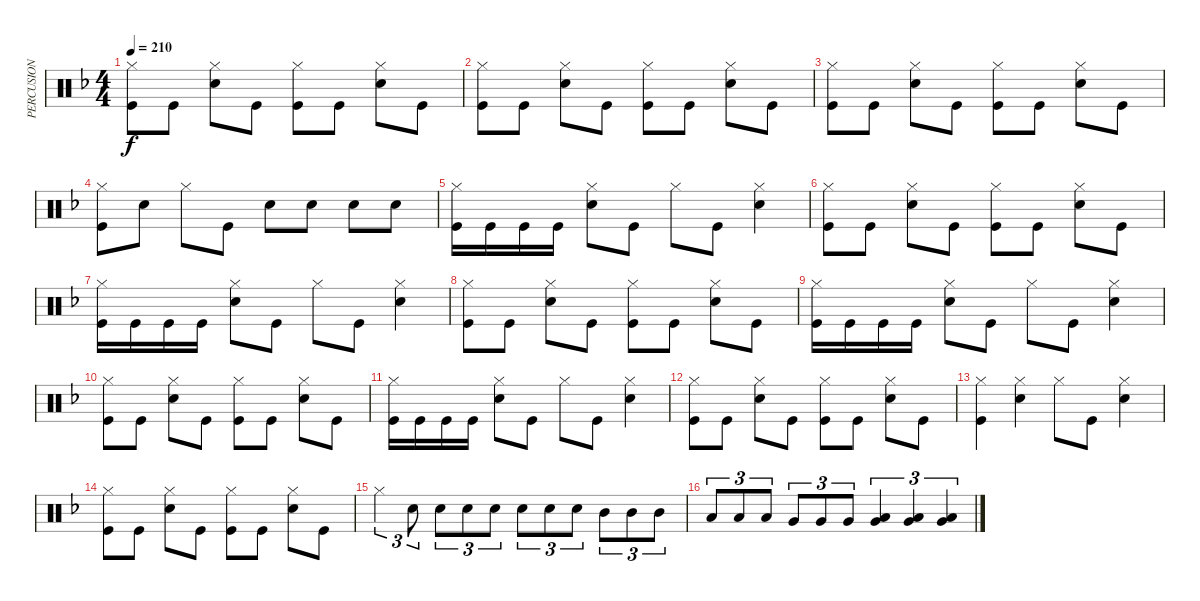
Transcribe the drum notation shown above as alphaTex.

\track ("PERCUSION" "PERCUSION") {instrument percussion}
\staff {score}
\articulation defaults
\ts (4 4)
\tempo 210
\clef neutral
\ks f
("Hi-Hat (closed)" "Kick (hit)").8{dy f} "Kick (hit)".8 ("Hi-Hat (closed)" "Snare (hit) 2").8 "Kick (hit)".8 ("Hi-Hat (closed)" "Kick (hit)").8 "Kick (hit)".8 ("Hi-Hat (closed)" "Snare (hit) 2").8 "Kick (hit)".8 |
("Hi-Hat (closed)" "Kick (hit)").8 "Kick (hit)".8 ("Hi-Hat (closed)" "Snare (hit) 2").8 "Kick (hit)".8 ("Hi-Hat (closed)" "Kick (hit)").8 "Kick (hit)".8 ("Hi-Hat (closed)" "Snare (hit) 2").8 "Kick (hit)".8 |
("Hi-Hat (closed)" "Kick (hit)").8 "Kick (hit)".8 ("Hi-Hat (closed)" "Snare (hit) 2").8 "Kick (hit)".8 ("Hi-Hat (closed)" "Kick (hit)").8 "Kick (hit)".8 ("Hi-Hat (closed)" "Snare (hit) 2").8 "Kick (hit)".8 |
("Hi-Hat (closed)" "Kick (hit)").8 "Snare (hit) 2".8 "Hi-Hat (closed)".8 "Kick (hit)".8 "Snare (hit) 2".8 "Snare (hit) 2".8 "Snare (hit) 2".8 "Snare (hit) 2".8 |
("Hi-Hat (closed)" "Kick (hit)").16 "Kick (hit)".16 "Kick (hit)".16 "Kick (hit)".16 ("Hi-Hat (closed)" "Snare (hit) 2").8 "Kick (hit)".8 "Hi-Hat (closed)".8 "Kick (hit)".8 ("Hi-Hat (closed)" "Snare (hit) 2").4 |
("Hi-Hat (closed)" "Kick (hit)").8 "Kick (hit)".8 ("Hi-Hat (closed)" "Snare (hit) 2").8 "Kick (hit)".8 ("Hi-Hat (closed)" "Kick (hit)").8 "Kick (hit)".8 ("Hi-Hat (closed)" "Snare (hit) 2").8 "Kick (hit)".8 |
("Hi-Hat (closed)" "Kick (hit)").16 "Kick (hit)".16 "Kick (hit)".16 "Kick (hit)".16 ("Hi-Hat (closed)" "Snare (hit) 2").8 "Kick (hit)".8 "Hi-Hat (closed)".8 "Kick (hit)".8 ("Hi-Hat (closed)" "Snare (hit) 2").4 |
("Hi-Hat (closed)" "Kick (hit)").8 "Kick (hit)".8 ("Hi-Hat (closed)" "Snare (hit) 2").8 "Kick (hit)".8 ("Hi-Hat (closed)" "Kick (hit)").8 "Kick (hit)".8 ("Hi-Hat (closed)" "Snare (hit) 2").8 "Kick (hit)".8 |
("Hi-Hat (closed)" "Kick (hit)").16 "Kick (hit)".16 "Kick (hit)".16 "Kick (hit)".16 ("Hi-Hat (closed)" "Snare (hit) 2").8 "Kick (hit)".8 "Hi-Hat (closed)".8 "Kick (hit)".8 ("Hi-Hat (closed)" "Snare (hit) 2").4 |
("Hi-Hat (closed)" "Kick (hit)").8 "Kick (hit)".8 ("Hi-Hat (closed)" "Snare (hit) 2").8 "Kick (hit)".8 ("Hi-Hat (closed)" "Kick (hit)").8 "Kick (hit)".8 ("Hi-Hat (closed)" "Snare (hit) 2").8 "Kick (hit)".8 |
("Hi-Hat (closed)" "Kick (hit)").16 "Kick (hit)".16 "Kick (hit)".16 "Kick (hit)".16 ("Hi-Hat (closed)" "Snare (hit) 2").8 "Kick (hit)".8 "Hi-Hat (closed)".8 "Kick (hit)".8 ("Hi-Hat (closed)" "Snare (hit) 2").4 |
("Hi-Hat (closed)" "Kick (hit)").8 "Kick (hit)".8 ("Hi-Hat (closed)" "Snare (hit) 2").8 "Kick (hit)".8 ("Hi-Hat (closed)" "Kick (hit)").8 "Kick (hit)".8 ("Hi-Hat (closed)" "Snare (hit) 2").8 "Kick (hit)".8 |
("Hi-Hat (closed)" "Kick (hit)").4 ("Hi-Hat (closed)" "Snare (hit) 2").4 "Hi-Hat (closed)".8 "Kick (hit)".8 ("Hi-Hat (closed)" "Snare (hit) 2").4 |
("Hi-Hat (closed)" "Kick (hit)").8 "Kick (hit)".8 ("Hi-Hat (closed)" "Snare (hit) 2").8 "Kick (hit)".8 ("Hi-Hat (closed)" "Kick (hit)").8 "Kick (hit)".8 ("Hi-Hat (closed)" "Snare (hit) 2").8 "Kick (hit)".8 |
"Hi-Hat (closed)".4{tu (3 2)} "Snare (hit) 2".8{tu (3 2)} "Snare (hit) 2".8{tu (3 2)} "Snare (hit) 2".8{tu (3 2)} "Snare (hit) 2".8{tu (3 2)} "Snare (hit) 2".8{tu (3 2)} "Snare (hit) 2".8{tu (3 2)} "Snare (hit) 2".8{tu (3 2)} "Mid Tom (hit)".8{tu (3 2)} "Mid Tom (hit)".8{tu (3 2)} "Mid Tom (hit)".8{tu (3 2)} |
"Low Tom (hit)".8{tu (3 2)} "Low Tom (hit)".8{tu (3 2)} "Low Tom (hit)".8{tu (3 2)} "Very Low Tom (hit)".8{tu (3 2)} "Very Low Tom (hit)".8{tu (3 2)} "Very Low Tom (hit)".8{tu (3 2)} ("Low Tom (hit)" "Very Low Tom (hit)").4{tu (3 2)} ("Low Tom (hit)" "Very Low Tom (hit)").4{tu (3 2)} ("Low Tom (hit)" "Very Low Tom (hit)").4{tu (3 2)}
